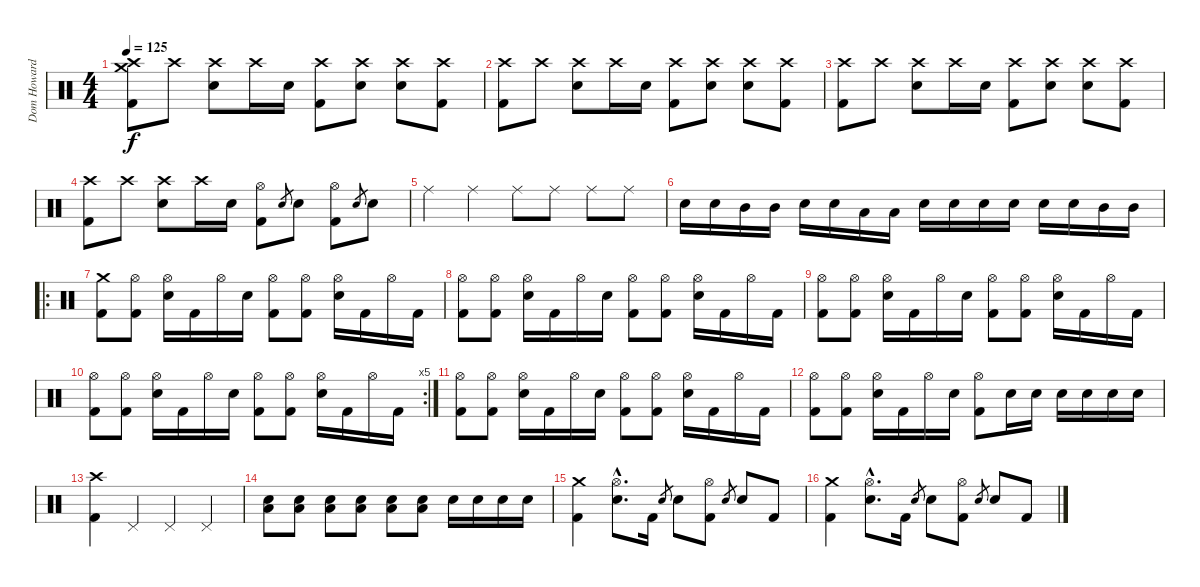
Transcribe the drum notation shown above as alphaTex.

\track ("Dom Howard" "Dom Howard") {instrument percussion}
\staff {score}
\articulation defaults
\ts (4 4)
\tempo 125
\clef neutral
\ks c
("Crash medium (hit)" "Crash high (hit)" "Kick (hit) 2").8{dy f} "Crash high (hit)".8 ("Crash high (hit)" "Electric Snare (hit)").8 "Crash high (hit)".16 "Electric Snare (hit)".16 ("Crash high (hit)" "Kick (hit) 2").8 ("Crash high (hit)" "Electric Snare (hit)").8 ("Crash high (hit)" "Electric Snare (hit)").8 ("Crash high (hit)" "Kick (hit) 2").8 |
("Crash high (hit)" "Kick (hit) 2").8 "Crash high (hit)".8 ("Crash high (hit)" "Electric Snare (hit)").8 "Crash high (hit)".16 "Electric Snare (hit)".16 ("Crash high (hit)" "Kick (hit) 2").8 ("Crash high (hit)" "Electric Snare (hit)").8 ("Crash high (hit)" "Electric Snare (hit)").8 ("Crash high (hit)" "Kick (hit) 2").8 |
("Crash high (hit)" "Kick (hit) 2").8 "Crash high (hit)".8 ("Crash high (hit)" "Electric Snare (hit)").8 "Crash high (hit)".16 "Electric Snare (hit)".16 ("Crash high (hit)" "Kick (hit) 2").8 ("Crash high (hit)" "Electric Snare (hit)").8 ("Crash high (hit)" "Electric Snare (hit)").8 ("Crash high (hit)" "Kick (hit) 2").8 |
("Crash high (hit)" "Kick (hit) 2").8 "Crash high (hit)".8 ("Crash high (hit)" "Electric Snare (hit)").8 "Crash high (hit)".16 "Electric Snare (hit)".16 ("Hi-Hat (open)" "Kick (hit) 2").8 "Electric Snare (hit)".8{gr} "Electric Snare (hit)".8 ("Hi-Hat (open)" "Kick (hit) 2").8 "Electric Snare (hit)".8{gr} "Electric Snare (hit)".8 |
"Ride (middle)".4 "Ride (middle)".4 "Ride (middle)".8 "Ride (middle)".8 "Ride (middle)".8 "Ride (middle)".8 |
"Electric Snare (hit)".16 "Electric Snare (hit)".16 "Mid Tom (hit)".16 "Mid Tom (hit)".16 "Electric Snare (hit)".16 "Electric Snare (hit)".16 "Low Tom (hit)".16 "Low Tom (hit)".16 "Electric Snare (hit)".16 "Electric Snare (hit)".16 "Electric Snare (hit)".16 "Electric Snare (hit)".16 "Electric Snare (hit)".16 "Electric Snare (hit)".16 "Mid Tom (hit)".16 "Mid Tom (hit)".16 |
\ro
("Crash medium (hit)" "Kick (hit) 2").8 ("Hi-Hat (open)" "Kick (hit) 2").8 ("Hi-Hat (open)" "Electric Snare (hit)").16 "Kick (hit) 2".16 "Hi-Hat (open)".16 "Electric Snare (hit)".16 ("Hi-Hat (open)" "Kick (hit) 2").8 ("Hi-Hat (open)" "Kick (hit) 2").8 ("Hi-Hat (open)" "Electric Snare (hit)").16 "Kick (hit) 2".16 "Hi-Hat (open)".16 "Kick (hit) 2".16 |
("Hi-Hat (open)" "Kick (hit) 2").8 ("Hi-Hat (open)" "Kick (hit) 2").8 ("Hi-Hat (open)" "Electric Snare (hit)").16 "Kick (hit) 2".16 "Hi-Hat (open)".16 "Electric Snare (hit)".16 ("Hi-Hat (open)" "Kick (hit) 2").8 ("Hi-Hat (open)" "Kick (hit) 2").8 ("Hi-Hat (open)" "Electric Snare (hit)").16 "Kick (hit) 2".16 "Hi-Hat (open)".16 "Kick (hit) 2".16 |
("Hi-Hat (open)" "Kick (hit) 2").8 ("Hi-Hat (open)" "Kick (hit) 2").8 ("Hi-Hat (open)" "Electric Snare (hit)").16 "Kick (hit) 2".16 "Hi-Hat (open)".16 "Electric Snare (hit)".16 ("Hi-Hat (open)" "Kick (hit) 2").8 ("Hi-Hat (open)" "Kick (hit) 2").8 ("Hi-Hat (open)" "Electric Snare (hit)").16 "Kick (hit) 2".16 "Hi-Hat (open)".16 "Kick (hit) 2".16 |
\rc 5
("Hi-Hat (open)" "Kick (hit) 2").8 ("Hi-Hat (open)" "Kick (hit) 2").8 ("Hi-Hat (open)" "Electric Snare (hit)").16 "Kick (hit) 2".16 "Hi-Hat (open)".16 "Electric Snare (hit)".16 ("Hi-Hat (open)" "Kick (hit) 2").8 ("Hi-Hat (open)" "Kick (hit) 2").8 ("Hi-Hat (open)" "Electric Snare (hit)").16 "Kick (hit) 2".16 "Hi-Hat (open)".16 "Kick (hit) 2".16 |
("Hi-Hat (open)" "Kick (hit) 2").8 ("Hi-Hat (open)" "Kick (hit) 2").8 ("Hi-Hat (open)" "Electric Snare (hit)").16 "Kick (hit) 2".16 "Hi-Hat (open)".16 "Electric Snare (hit)".16 ("Hi-Hat (open)" "Kick (hit) 2").8 ("Hi-Hat (open)" "Kick (hit) 2").8 ("Hi-Hat (open)" "Electric Snare (hit)").16 "Kick (hit) 2".16 "Hi-Hat (open)".16 "Kick (hit) 2".16 |
("Hi-Hat (open)" "Kick (hit) 2").8 ("Hi-Hat (open)" "Kick (hit) 2").8 ("Hi-Hat (open)" "Electric Snare (hit)").16 "Kick (hit) 2".16 "Hi-Hat (open)".16 "Electric Snare (hit)".16 ("Hi-Hat (open)" "Kick (hit) 2").8 "Electric Snare (hit)".16 "Electric Snare (hit)".16 "Electric Snare (hit)".16 "Electric Snare (hit)".16 "Electric Snare (hit)".16 "Electric Snare (hit)".16 |
("Crash high (hit)" "Kick (hit) 2").4 "Pedal Hi-Hat (hit)".4 "Pedal Hi-Hat (hit)".4 "Pedal Hi-Hat (hit)".4 |
("Low Floor Tom (hit)" "Electric Snare (hit)").8 ("Low Floor Tom (hit)" "Electric Snare (hit)").8 ("Low Floor Tom (hit)" "Electric Snare (hit)").8 ("Low Floor Tom (hit)" "Electric Snare (hit)").8 ("Low Floor Tom (hit)" "Electric Snare (hit)").8 ("Low Floor Tom (hit)" "Electric Snare (hit)").8 "Electric Snare (hit)".16 "Electric Snare (hit)".16 "Electric Snare (hit)".16 "Electric Snare (hit)".16 |
("Crash medium (hit)" "Kick (hit) 2").4 ("Hi-Hat (open)"{hac} "Electric Snare (hit)"{hac}).8{d} "Kick (hit) 2".16 "Electric Snare (hit)".8{gr} "Electric Snare (hit)".8 ("Hi-Hat (open)" "Kick (hit) 2").8 "Electric Snare (hit)".8{gr} "Electric Snare (hit)".8 "Kick (hit) 2".8 |
("Crash medium (hit)" "Kick (hit) 2").4 ("Hi-Hat (open)"{hac} "Electric Snare (hit)"{hac}).8{d} "Kick (hit) 2".16 "Electric Snare (hit)".8{gr} "Electric Snare (hit)".8 ("Hi-Hat (open)" "Kick (hit) 2").8 "Electric Snare (hit)".8{gr} "Electric Snare (hit)".8 "Kick (hit) 2".8
